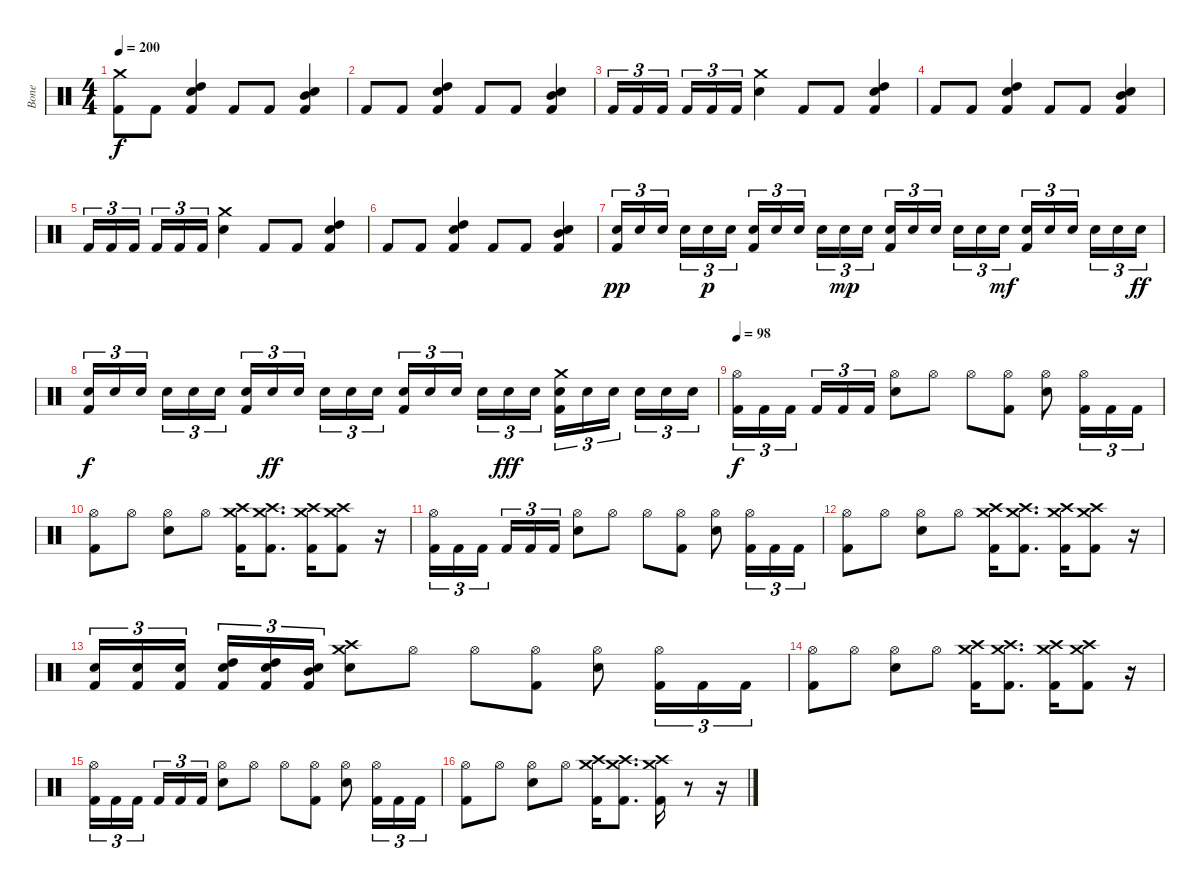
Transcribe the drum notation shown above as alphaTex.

\track ("Bone " "Bone ") {instrument percussion}
\staff {score}
\articulation defaults
\ts (4 4)
\tempo 200
\clef neutral
\ks c
("Crash medium (hit)" "Kick (hit) 2").8{dy f} "Kick (hit) 2".8 ("High Tom (hit)" "Electric Snare (hit)" "Kick (hit) 2").4 "Kick (hit) 2".8 "Kick (hit) 2".8 ("Mid Tom (hit)" "Electric Snare (hit)" "Kick (hit) 2").4 |
"Kick (hit) 2".8 "Kick (hit) 2".8 ("High Tom (hit)" "Electric Snare (hit)" "Kick (hit) 2").4 "Kick (hit) 2".8 "Kick (hit) 2".8 ("Mid Tom (hit)" "Electric Snare (hit)" "Kick (hit) 2").4 |
"Kick (hit) 2".16{tu (3 2)} "Kick (hit) 2".16{tu (3 2)} "Kick (hit) 2".16{tu (3 2) beam splitsecondary} "Kick (hit) 2".16{tu (3 2)} "Kick (hit) 2".16{tu (3 2)} "Kick (hit) 2".16{tu (3 2)} ("Crash medium (hit)" "Electric Snare (hit)").4 "Kick (hit) 2".8 "Kick (hit) 2".8 ("High Tom (hit)" "Electric Snare (hit)" "Kick (hit) 2").4 |
"Kick (hit) 2".8 "Kick (hit) 2".8 ("High Tom (hit)" "Electric Snare (hit)" "Kick (hit) 2").4 "Kick (hit) 2".8 "Kick (hit) 2".8 ("Mid Tom (hit)" "Electric Snare (hit)" "Kick (hit) 2").4 |
"Kick (hit) 2".16{tu (3 2)} "Kick (hit) 2".16{tu (3 2)} "Kick (hit) 2".16{tu (3 2) beam splitsecondary} "Kick (hit) 2".16{tu (3 2)} "Kick (hit) 2".16{tu (3 2)} "Kick (hit) 2".16{tu (3 2)} ("Crash medium (hit)" "Electric Snare (hit)").4 "Kick (hit) 2".8 "Kick (hit) 2".8 ("High Tom (hit)" "Electric Snare (hit)" "Kick (hit) 2").4 |
"Kick (hit) 2".8 "Kick (hit) 2".8 ("High Tom (hit)" "Electric Snare (hit)" "Kick (hit) 2").4 "Kick (hit) 2".8 "Kick (hit) 2".8 ("Mid Tom (hit)" "Electric Snare (hit)" "Kick (hit) 2").4 |
("Electric Snare (hit)" "Kick (hit) 2").16{tu (3 2) dy pp} "Electric Snare (hit)".16{tu (3 2)} "Electric Snare (hit)".16{tu (3 2) beam splitsecondary} "Electric Snare (hit)".16{tu (3 2)} "Electric Snare (hit)".16{tu (3 2) dy p} "Electric Snare (hit)".16{tu (3 2)} ("Electric Snare (hit)" "Kick (hit) 2").16{tu (3 2)} "Electric Snare (hit)".16{tu (3 2)} "Electric Snare (hit)".16{tu (3 2) beam splitsecondary} "Electric Snare (hit)".16{tu (3 2)} "Electric Snare (hit)".16{tu (3 2) dy mp} "Electric Snare (hit)".16{tu (3 2)} ("Electric Snare (hit)" "Kick (hit) 2").16{tu (3 2)} "Electric Snare (hit)".16{tu (3 2)} "Electric Snare (hit)".16{tu (3 2) beam splitsecondary} "Electric Snare (hit)".16{tu (3 2)} "Electric Snare (hit)".16{tu (3 2)} "Electric Snare (hit)".16{tu (3 2) dy mf} ("Electric Snare (hit)" "Kick (hit) 2").16{tu (3 2)} "Electric Snare (hit)".16{tu (3 2)} "Electric Snare (hit)".16{tu (3 2) beam splitsecondary} "Electric Snare (hit)".16{tu (3 2)} "Electric Snare (hit)".16{tu (3 2)} "Electric Snare (hit)".16{tu (3 2) dy ff} |
("Electric Snare (hit)" "Kick (hit) 2").16{tu (3 2) dy f} "Electric Snare (hit)".16{tu (3 2)} "Electric Snare (hit)".16{tu (3 2) beam splitsecondary} "Electric Snare (hit)".16{tu (3 2)} "Electric Snare (hit)".16{tu (3 2)} "Electric Snare (hit)".16{tu (3 2)} ("Electric Snare (hit)" "Kick (hit) 2").16{tu (3 2)} "Electric Snare (hit)".16{tu (3 2) dy ff} "Electric Snare (hit)".16{tu (3 2) beam splitsecondary} "Electric Snare (hit)".16{tu (3 2)} "Electric Snare (hit)".16{tu (3 2)} "Electric Snare (hit)".16{tu (3 2)} ("Electric Snare (hit)" "Kick (hit) 2").16{tu (3 2)} "Electric Snare (hit)".16{tu (3 2)} "Electric Snare (hit)".16{tu (3 2) beam splitsecondary} "Electric Snare (hit)".16{tu (3 2)} "Electric Snare (hit)".16{tu (3 2) dy fff} "Electric Snare (hit)".16{tu (3 2)} ("Crash medium (hit)" "Electric Snare (hit)" "Kick (hit) 2").16{tu (3 2)} "Electric Snare (hit)".16{tu (3 2)} "Electric Snare (hit)".16{tu (3 2) beam splitsecondary} "Electric Snare (hit)".16{tu (3 2)} "Electric Snare (hit)".16{tu (3 2)} "Electric Snare (hit)".16{tu (3 2)} |
\tempo 98
("Hi-Hat (open)" "Kick (hit) 2").16{tu (3 2) dy f} "Kick (hit) 2".16{tu (3 2)} "Kick (hit) 2".16{tu (3 2) beam splitsecondary} "Kick (hit) 2".16{tu (3 2)} "Kick (hit) 2".16{tu (3 2)} "Kick (hit) 2".16{tu (3 2)} ("Hi-Hat (open)" "Electric Snare (hit)").8 "Hi-Hat (open)".8 "Hi-Hat (open)".8 ("Hi-Hat (open)" "Kick (hit) 2").8 ("Hi-Hat (open)" "Electric Snare (hit)").8 ("Hi-Hat (open)" "Kick (hit) 2").16{tu (3 2)} "Kick (hit) 2".16{tu (3 2)} "Kick (hit) 2".16{tu (3 2)} |
("Hi-Hat (open)" "Kick (hit) 2").8 "Hi-Hat (open)".8 ("Hi-Hat (open)" "Electric Snare (hit)").8 "Hi-Hat (open)".8 ("Crash medium (hit)" "Crash high (hit)" "Kick (hit) 2").16 ("Crash medium (hit)" "Crash high (hit)" "Kick (hit) 2").8{d} ("Crash medium (hit)" "Crash high (hit)" "Kick (hit) 2").16 ("Crash medium (hit)" "Crash high (hit)" "Kick (hit) 2").8 r.16 |
("Hi-Hat (open)" "Kick (hit) 2").16{tu (3 2)} "Kick (hit) 2".16{tu (3 2)} "Kick (hit) 2".16{tu (3 2) beam splitsecondary} "Kick (hit) 2".16{tu (3 2)} "Kick (hit) 2".16{tu (3 2)} "Kick (hit) 2".16{tu (3 2)} ("Hi-Hat (open)" "Electric Snare (hit)").8 "Hi-Hat (open)".8 "Hi-Hat (open)".8 ("Hi-Hat (open)" "Kick (hit) 2").8 ("Hi-Hat (open)" "Electric Snare (hit)").8 ("Hi-Hat (open)" "Kick (hit) 2").16{tu (3 2)} "Kick (hit) 2".16{tu (3 2)} "Kick (hit) 2".16{tu (3 2)} |
("Hi-Hat (open)" "Kick (hit) 2").8 "Hi-Hat (open)".8 ("Hi-Hat (open)" "Electric Snare (hit)").8 "Hi-Hat (open)".8 ("Crash medium (hit)" "Crash high (hit)" "Kick (hit) 2").16 ("Crash medium (hit)" "Crash high (hit)" "Kick (hit) 2").8{d} ("Crash medium (hit)" "Crash high (hit)" "Kick (hit) 2").16 ("Crash medium (hit)" "Crash high (hit)" "Kick (hit) 2").8 r.16 |
("Electric Snare (hit)" "Kick (hit) 2").16{tu (3 2)} ("Electric Snare (hit)" "Kick (hit) 2").16{tu (3 2)} ("Electric Snare (hit)" "Kick (hit) 2").16{tu (3 2) beam splitsecondary} ("Electric Snare (hit)" "High Tom (hit)" "Kick (hit) 2").16{tu (3 2)} ("Electric Snare (hit)" "High Tom (hit)" "Kick (hit) 2").16{tu (3 2)} ("Electric Snare (hit)" "Mid Tom (hit)" "Kick (hit) 2").16{tu (3 2)} ("Crash medium (hit)" "Crash high (hit)" "Electric Snare (hit)").8 "Hi-Hat (open)".8 "Hi-Hat (open)".8 ("Hi-Hat (open)" "Kick (hit) 2").8 ("Hi-Hat (open)" "Electric Snare (hit)").8 ("Hi-Hat (open)" "Kick (hit) 2").16{tu (3 2)} "Kick (hit) 2".16{tu (3 2)} "Kick (hit) 2".16{tu (3 2)} |
("Hi-Hat (open)" "Kick (hit) 2").8 "Hi-Hat (open)".8 ("Hi-Hat (open)" "Electric Snare (hit)").8 "Hi-Hat (open)".8 ("Crash medium (hit)" "Crash high (hit)" "Kick (hit) 2").16 ("Crash medium (hit)" "Crash high (hit)" "Kick (hit) 2").8{d} ("Crash medium (hit)" "Crash high (hit)" "Kick (hit) 2").16 ("Crash medium (hit)" "Crash high (hit)" "Kick (hit) 2").8 r.16 |
("Hi-Hat (open)" "Kick (hit) 2").16{tu (3 2)} "Kick (hit) 2".16{tu (3 2)} "Kick (hit) 2".16{tu (3 2) beam splitsecondary} "Kick (hit) 2".16{tu (3 2)} "Kick (hit) 2".16{tu (3 2)} "Kick (hit) 2".16{tu (3 2)} ("Hi-Hat (open)" "Electric Snare (hit)").8 "Hi-Hat (open)".8 "Hi-Hat (open)".8 ("Hi-Hat (open)" "Kick (hit) 2").8 ("Hi-Hat (open)" "Electric Snare (hit)").8 ("Hi-Hat (open)" "Kick (hit) 2").16{tu (3 2)} "Kick (hit) 2".16{tu (3 2)} "Kick (hit) 2".16{tu (3 2)} |
("Hi-Hat (open)" "Kick (hit) 2").8 "Hi-Hat (open)".8 ("Hi-Hat (open)" "Electric Snare (hit)").8 "Hi-Hat (open)".8 ("Crash medium (hit)" "Crash high (hit)" "Kick (hit) 2").16 ("Crash medium (hit)" "Crash high (hit)" "Kick (hit) 2").8{d} ("Crash medium (hit)" "Crash high (hit)" "Kick (hit) 2").16 r.8 r.16
